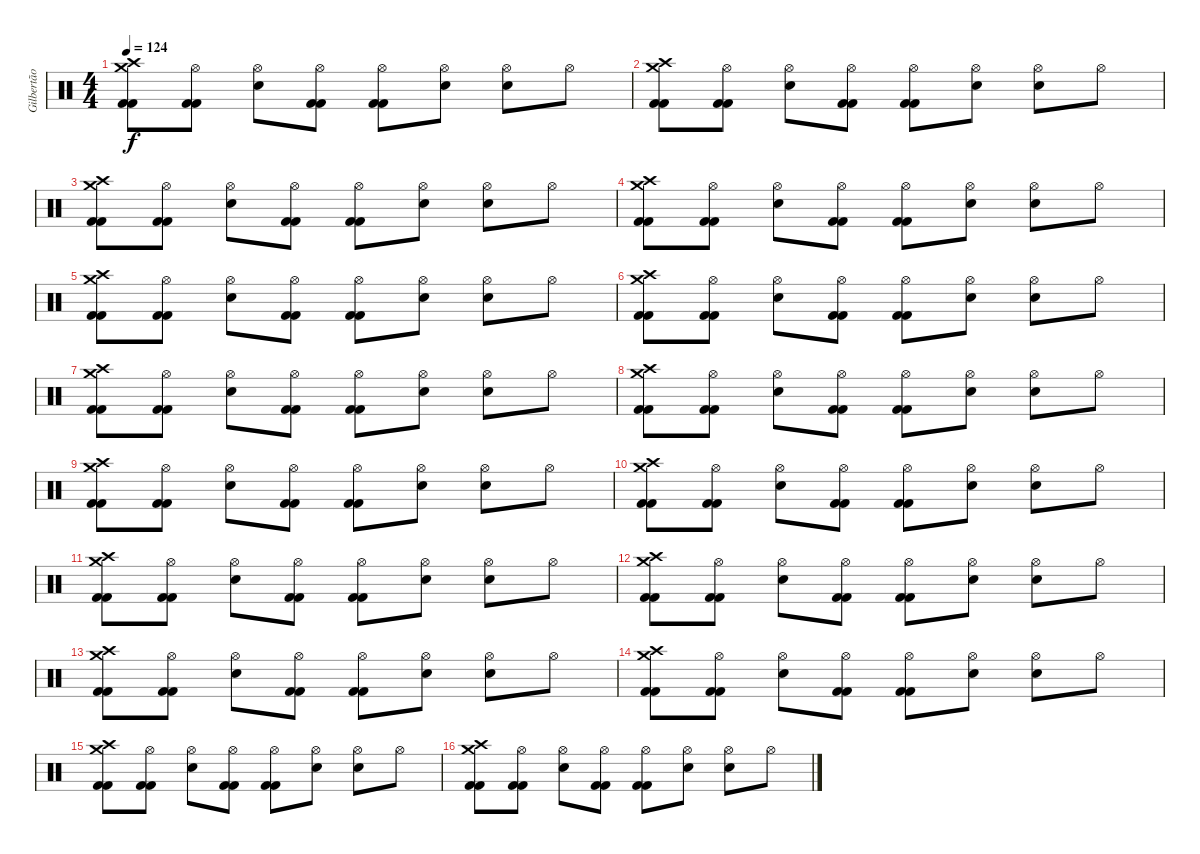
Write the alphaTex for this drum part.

\track ("Gilbertão (Drums)" "Gilbertão ") {instrument percussion}
\staff {score}
\articulation defaults
\ts (4 4)
\tempo 124
\clef neutral
\ks c
("Crash medium (hit)" "Crash high (hit)" "Kick (hit) 2" "Kick (hit) 2").8{dy f} ("Hi-Hat (open)" "Kick (hit) 2" "Kick (hit) 2").8 ("Hi-Hat (open)" "Snare (hit) 2").8 ("Hi-Hat (open)" "Kick (hit) 2" "Kick (hit) 2").8 ("Hi-Hat (open)" "Kick (hit) 2" "Kick (hit) 2").8 ("Hi-Hat (open)" "Snare (hit) 2").8 ("Hi-Hat (open)" "Snare (hit) 2").8 "Hi-Hat (open)".8 |
("Crash medium (hit)" "Crash high (hit)" "Kick (hit) 2" "Kick (hit) 2").8 ("Hi-Hat (open)" "Kick (hit) 2" "Kick (hit) 2").8 ("Hi-Hat (open)" "Snare (hit) 2").8 ("Hi-Hat (open)" "Kick (hit) 2" "Kick (hit) 2").8 ("Hi-Hat (open)" "Kick (hit) 2" "Kick (hit) 2").8 ("Hi-Hat (open)" "Snare (hit) 2").8 ("Hi-Hat (open)" "Snare (hit) 2").8 "Hi-Hat (open)".8 |
("Crash medium (hit)" "Crash high (hit)" "Kick (hit) 2" "Kick (hit) 2").8 ("Hi-Hat (open)" "Kick (hit) 2" "Kick (hit) 2").8 ("Hi-Hat (open)" "Snare (hit) 2").8 ("Hi-Hat (open)" "Kick (hit) 2" "Kick (hit) 2").8 ("Hi-Hat (open)" "Kick (hit) 2" "Kick (hit) 2").8 ("Hi-Hat (open)" "Snare (hit) 2").8 ("Hi-Hat (open)" "Snare (hit) 2").8 "Hi-Hat (open)".8 |
("Crash medium (hit)" "Crash high (hit)" "Kick (hit) 2" "Kick (hit) 2").8 ("Hi-Hat (open)" "Kick (hit) 2" "Kick (hit) 2").8 ("Hi-Hat (open)" "Snare (hit) 2").8 ("Hi-Hat (open)" "Kick (hit) 2" "Kick (hit) 2").8 ("Hi-Hat (open)" "Kick (hit) 2" "Kick (hit) 2").8 ("Hi-Hat (open)" "Snare (hit) 2").8 ("Hi-Hat (open)" "Snare (hit) 2").8 "Hi-Hat (open)".8 |
("Crash medium (hit)" "Crash high (hit)" "Kick (hit) 2" "Kick (hit) 2").8 ("Hi-Hat (open)" "Kick (hit) 2" "Kick (hit) 2").8 ("Hi-Hat (open)" "Snare (hit) 2").8 ("Hi-Hat (open)" "Kick (hit) 2" "Kick (hit) 2").8 ("Hi-Hat (open)" "Kick (hit) 2" "Kick (hit) 2").8 ("Hi-Hat (open)" "Snare (hit) 2").8 ("Hi-Hat (open)" "Snare (hit) 2").8 "Hi-Hat (open)".8 |
("Crash medium (hit)" "Crash high (hit)" "Kick (hit) 2" "Kick (hit) 2").8 ("Hi-Hat (open)" "Kick (hit) 2" "Kick (hit) 2").8 ("Hi-Hat (open)" "Snare (hit) 2").8 ("Hi-Hat (open)" "Kick (hit) 2" "Kick (hit) 2").8 ("Hi-Hat (open)" "Kick (hit) 2" "Kick (hit) 2").8 ("Hi-Hat (open)" "Snare (hit) 2").8 ("Hi-Hat (open)" "Snare (hit) 2").8 "Hi-Hat (open)".8 |
("Crash medium (hit)" "Crash high (hit)" "Kick (hit) 2" "Kick (hit) 2").8 ("Hi-Hat (open)" "Kick (hit) 2" "Kick (hit) 2").8 ("Hi-Hat (open)" "Snare (hit) 2").8 ("Hi-Hat (open)" "Kick (hit) 2" "Kick (hit) 2").8 ("Hi-Hat (open)" "Kick (hit) 2" "Kick (hit) 2").8 ("Hi-Hat (open)" "Snare (hit) 2").8 ("Hi-Hat (open)" "Snare (hit) 2").8 "Hi-Hat (open)".8 |
("Crash medium (hit)" "Crash high (hit)" "Kick (hit) 2" "Kick (hit) 2").8 ("Hi-Hat (open)" "Kick (hit) 2" "Kick (hit) 2").8 ("Hi-Hat (open)" "Snare (hit) 2").8 ("Hi-Hat (open)" "Kick (hit) 2" "Kick (hit) 2").8 ("Hi-Hat (open)" "Kick (hit) 2" "Kick (hit) 2").8 ("Hi-Hat (open)" "Snare (hit) 2").8 ("Hi-Hat (open)" "Snare (hit) 2").8 "Hi-Hat (open)".8 |
("Crash medium (hit)" "Crash high (hit)" "Kick (hit) 2" "Kick (hit) 2").8 ("Hi-Hat (open)" "Kick (hit) 2" "Kick (hit) 2").8 ("Hi-Hat (open)" "Snare (hit) 2").8 ("Hi-Hat (open)" "Kick (hit) 2" "Kick (hit) 2").8 ("Hi-Hat (open)" "Kick (hit) 2" "Kick (hit) 2").8 ("Hi-Hat (open)" "Snare (hit) 2").8 ("Hi-Hat (open)" "Snare (hit) 2").8 "Hi-Hat (open)".8 |
("Crash medium (hit)" "Crash high (hit)" "Kick (hit) 2" "Kick (hit) 2").8 ("Hi-Hat (open)" "Kick (hit) 2" "Kick (hit) 2").8 ("Hi-Hat (open)" "Snare (hit) 2").8 ("Hi-Hat (open)" "Kick (hit) 2" "Kick (hit) 2").8 ("Hi-Hat (open)" "Kick (hit) 2" "Kick (hit) 2").8 ("Hi-Hat (open)" "Snare (hit) 2").8 ("Hi-Hat (open)" "Snare (hit) 2").8 "Hi-Hat (open)".8 |
("Crash medium (hit)" "Crash high (hit)" "Kick (hit) 2" "Kick (hit) 2").8 ("Hi-Hat (open)" "Kick (hit) 2" "Kick (hit) 2").8 ("Hi-Hat (open)" "Snare (hit) 2").8 ("Hi-Hat (open)" "Kick (hit) 2" "Kick (hit) 2").8 ("Hi-Hat (open)" "Kick (hit) 2" "Kick (hit) 2").8 ("Hi-Hat (open)" "Snare (hit) 2").8 ("Hi-Hat (open)" "Snare (hit) 2").8 "Hi-Hat (open)".8 |
("Crash medium (hit)" "Crash high (hit)" "Kick (hit) 2" "Kick (hit) 2").8 ("Hi-Hat (open)" "Kick (hit) 2" "Kick (hit) 2").8 ("Hi-Hat (open)" "Snare (hit) 2").8 ("Hi-Hat (open)" "Kick (hit) 2" "Kick (hit) 2").8 ("Hi-Hat (open)" "Kick (hit) 2" "Kick (hit) 2").8 ("Hi-Hat (open)" "Snare (hit) 2").8 ("Hi-Hat (open)" "Snare (hit) 2").8 "Hi-Hat (open)".8 |
("Crash medium (hit)" "Crash high (hit)" "Kick (hit) 2" "Kick (hit) 2").8 ("Hi-Hat (open)" "Kick (hit) 2" "Kick (hit) 2").8 ("Hi-Hat (open)" "Snare (hit) 2").8 ("Hi-Hat (open)" "Kick (hit) 2" "Kick (hit) 2").8 ("Hi-Hat (open)" "Kick (hit) 2" "Kick (hit) 2").8 ("Hi-Hat (open)" "Snare (hit) 2").8 ("Hi-Hat (open)" "Snare (hit) 2").8 "Hi-Hat (open)".8 |
("Crash medium (hit)" "Crash high (hit)" "Kick (hit) 2" "Kick (hit) 2").8 ("Hi-Hat (open)" "Kick (hit) 2" "Kick (hit) 2").8 ("Hi-Hat (open)" "Snare (hit) 2").8 ("Hi-Hat (open)" "Kick (hit) 2" "Kick (hit) 2").8 ("Hi-Hat (open)" "Kick (hit) 2" "Kick (hit) 2").8 ("Hi-Hat (open)" "Snare (hit) 2").8 ("Hi-Hat (open)" "Snare (hit) 2").8 "Hi-Hat (open)".8 |
("Crash medium (hit)" "Crash high (hit)" "Kick (hit) 2" "Kick (hit) 2").8 ("Hi-Hat (open)" "Kick (hit) 2" "Kick (hit) 2").8 ("Hi-Hat (open)" "Snare (hit) 2").8 ("Hi-Hat (open)" "Kick (hit) 2" "Kick (hit) 2").8 ("Hi-Hat (open)" "Kick (hit) 2" "Kick (hit) 2").8 ("Hi-Hat (open)" "Snare (hit) 2").8 ("Hi-Hat (open)" "Snare (hit) 2").8 "Hi-Hat (open)".8 |
("Crash medium (hit)" "Crash high (hit)" "Kick (hit) 2" "Kick (hit) 2").8 ("Hi-Hat (open)" "Kick (hit) 2" "Kick (hit) 2").8 ("Hi-Hat (open)" "Snare (hit) 2").8 ("Hi-Hat (open)" "Kick (hit) 2" "Kick (hit) 2").8 ("Hi-Hat (open)" "Kick (hit) 2" "Kick (hit) 2").8 ("Hi-Hat (open)" "Snare (hit) 2").8 ("Hi-Hat (open)" "Snare (hit) 2").8 "Hi-Hat (open)".8
